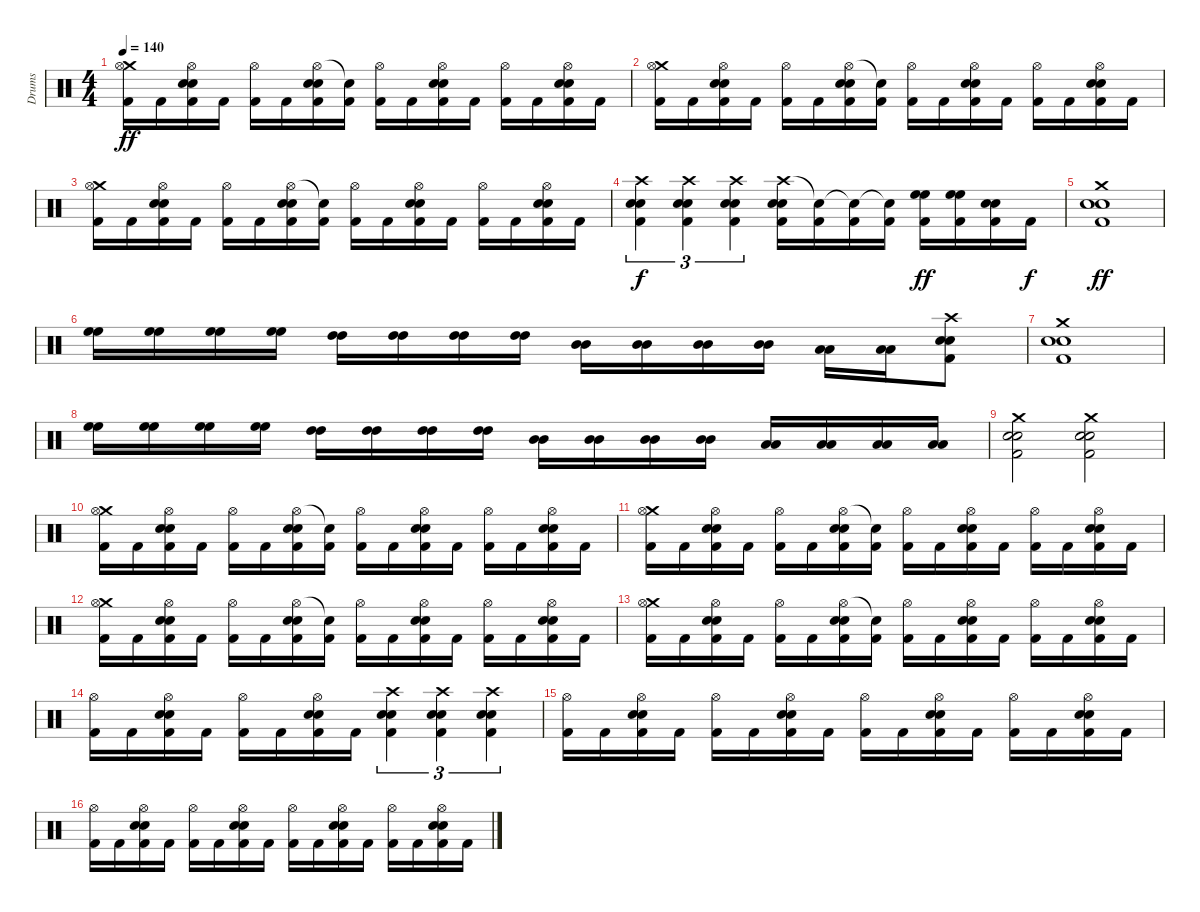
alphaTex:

\track ("Drums" "Drums") {instrument percussion}
\staff {score}
\articulation defaults
\ts (4 4)
\tempo 140
\clef neutral
\ks c
("Crash medium (hit)" "Hi-Hat (open)" "Kick (hit) 2").16{dy ff} "Kick (hit) 2".16 ("Hi-Hat (open)" "Electric Snare (hit)" "Electric Snare (hit)" "Kick (hit) 2").16 "Kick (hit) 2".16 ("Hi-Hat (open)" "Kick (hit) 2").16 "Kick (hit) 2".16 ("Hi-Hat (open)" "Electric Snare (hit)" "Electric Snare (hit)" "Kick (hit) 2").16 ("Snare (hit)"{t} "Kick (hit) 2").16 ("Hi-Hat (open)" "Kick (hit) 2").16 "Kick (hit) 2".16 ("Hi-Hat (open)" "Electric Snare (hit)" "Electric Snare (hit)" "Kick (hit) 2").16 "Kick (hit) 2".16 ("Hi-Hat (open)" "Kick (hit) 2").16 "Kick (hit) 2".16 ("Hi-Hat (open)" "Electric Snare (hit)" "Electric Snare (hit)" "Kick (hit) 2").16 "Kick (hit) 2".16 |
("Crash medium (hit)" "Hi-Hat (open)" "Kick (hit) 2").16 "Kick (hit) 2".16 ("Hi-Hat (open)" "Electric Snare (hit)" "Electric Snare (hit)" "Kick (hit) 2").16 "Kick (hit) 2".16 ("Hi-Hat (open)" "Kick (hit) 2").16 "Kick (hit) 2".16 ("Hi-Hat (open)" "Electric Snare (hit)" "Electric Snare (hit)" "Kick (hit) 2").16 ("Snare (hit)"{t} "Kick (hit) 2").16 ("Hi-Hat (open)" "Kick (hit) 2").16 "Kick (hit) 2".16 ("Hi-Hat (open)" "Electric Snare (hit)" "Electric Snare (hit)" "Kick (hit) 2").16 "Kick (hit) 2".16 ("Hi-Hat (open)" "Kick (hit) 2").16 "Kick (hit) 2".16 ("Hi-Hat (open)" "Electric Snare (hit)" "Electric Snare (hit)" "Kick (hit) 2").16 "Kick (hit) 2".16 |
("Crash medium (hit)" "Hi-Hat (open)" "Kick (hit) 2").16 "Kick (hit) 2".16 ("Hi-Hat (open)" "Electric Snare (hit)" "Electric Snare (hit)" "Kick (hit) 2").16 "Kick (hit) 2".16 ("Hi-Hat (open)" "Kick (hit) 2").16 "Kick (hit) 2".16 ("Hi-Hat (open)" "Electric Snare (hit)" "Electric Snare (hit)" "Kick (hit) 2").16 ("Snare (hit)"{t} "Kick (hit) 2").16 ("Hi-Hat (open)" "Kick (hit) 2").16 "Kick (hit) 2".16 ("Hi-Hat (open)" "Electric Snare (hit)" "Electric Snare (hit)" "Kick (hit) 2").16 "Kick (hit) 2".16 ("Hi-Hat (open)" "Kick (hit) 2").16 "Kick (hit) 2".16 ("Hi-Hat (open)" "Electric Snare (hit)" "Electric Snare (hit)" "Kick (hit) 2").16 "Kick (hit) 2".16 |
("Crash high (hit)" "Electric Snare (hit)" "Electric Snare (hit)" "Kick (hit) 2").4{tu (3 2) dy f} ("Crash high (hit)" "Electric Snare (hit)" "Electric Snare (hit)" "Kick (hit) 2").4{tu (3 2)} ("Crash high (hit)" "Electric Snare (hit)" "Electric Snare (hit)" "Kick (hit) 2").4{tu (3 2)} ("Crash high (hit)" "Electric Snare (hit)" "Electric Snare (hit)" "Kick (hit) 2").16 ("Snare (hit)"{t} "Kick (hit) 2").16 ("Snare (hit)"{t} "Kick (hit) 2").16 ("Snare (hit)"{t} "Kick (hit) 2").16 ("High Floor Tom (hit)" "High Floor Tom (hit)" "Kick (hit) 2").16{dy ff} ("High Floor Tom (hit)" "High Floor Tom (hit)" "Kick (hit) 2").16 ("Electric Snare (hit)" "Electric Snare (hit)" "Kick (hit) 2").16 "Kick (hit) 2".16{dy f} |
("Crash medium (hit)" "Electric Snare (hit)" "Electric Snare (hit)" "Kick (hit) 2").1{dy ff} |
("High Floor Tom (hit)" "High Floor Tom (hit)").16 ("High Floor Tom (hit)" "High Floor Tom (hit)").16 ("High Floor Tom (hit)" "High Floor Tom (hit)").16 ("High Floor Tom (hit)" "High Floor Tom (hit)").16 ("High Tom (hit)" "High Tom (hit)").16 ("High Tom (hit)" "High Tom (hit)").16 ("High Tom (hit)" "High Tom (hit)").16 ("High Tom (hit)" "High Tom (hit)").16 ("Mid Tom (hit)" "Mid Tom (hit)").16 ("Mid Tom (hit)" "Mid Tom (hit)").16 ("Mid Tom (hit)" "Mid Tom (hit)").16 ("Mid Tom (hit)" "Mid Tom (hit)").16 ("Low Tom (hit)" "Low Tom (hit)").16 ("Low Tom (hit)" "Low Tom (hit)").16 ("Crash high (hit)" "Electric Snare (hit)" "Electric Snare (hit)" "Kick (hit) 2").8 |
("Crash medium (hit)" "Electric Snare (hit)" "Electric Snare (hit)" "Kick (hit) 2").1 |
("High Floor Tom (hit)" "High Floor Tom (hit)").16 ("High Floor Tom (hit)" "High Floor Tom (hit)").16 ("High Floor Tom (hit)" "High Floor Tom (hit)").16 ("High Floor Tom (hit)" "High Floor Tom (hit)").16 ("High Tom (hit)" "High Tom (hit)").16 ("High Tom (hit)" "High Tom (hit)").16 ("High Tom (hit)" "High Tom (hit)").16 ("High Tom (hit)" "High Tom (hit)").16 ("Mid Tom (hit)" "Mid Tom (hit)").16 ("Mid Tom (hit)" "Mid Tom (hit)").16 ("Mid Tom (hit)" "Mid Tom (hit)").16 ("Mid Tom (hit)" "Mid Tom (hit)").16 ("Low Tom (hit)" "Low Tom (hit)").16 ("Low Tom (hit)" "Low Tom (hit)").16 ("Low Tom (hit)" "Low Tom (hit)").16 ("Low Tom (hit)" "Low Tom (hit)").16 |
("Crash medium (hit)" "Electric Snare (hit)" "Electric Snare (hit)" "Kick (hit) 2").2 ("Crash medium (hit)" "Electric Snare (hit)" "Electric Snare (hit)" "Kick (hit) 2").2 |
("Crash medium (hit)" "Hi-Hat (open)" "Kick (hit) 2").16 "Kick (hit) 2".16 ("Hi-Hat (open)" "Electric Snare (hit)" "Electric Snare (hit)" "Kick (hit) 2").16 "Kick (hit) 2".16 ("Hi-Hat (open)" "Kick (hit) 2").16 "Kick (hit) 2".16 ("Hi-Hat (open)" "Electric Snare (hit)" "Electric Snare (hit)" "Kick (hit) 2").16 ("Snare (hit)"{t} "Kick (hit) 2").16 ("Hi-Hat (open)" "Kick (hit) 2").16 "Kick (hit) 2".16 ("Hi-Hat (open)" "Electric Snare (hit)" "Electric Snare (hit)" "Kick (hit) 2").16 "Kick (hit) 2".16 ("Hi-Hat (open)" "Kick (hit) 2").16 "Kick (hit) 2".16 ("Hi-Hat (open)" "Electric Snare (hit)" "Electric Snare (hit)" "Kick (hit) 2").16 "Kick (hit) 2".16 |
("Crash medium (hit)" "Hi-Hat (open)" "Kick (hit) 2").16 "Kick (hit) 2".16 ("Hi-Hat (open)" "Electric Snare (hit)" "Electric Snare (hit)" "Kick (hit) 2").16 "Kick (hit) 2".16 ("Hi-Hat (open)" "Kick (hit) 2").16 "Kick (hit) 2".16 ("Hi-Hat (open)" "Electric Snare (hit)" "Electric Snare (hit)" "Kick (hit) 2").16 ("Snare (hit)"{t} "Kick (hit) 2").16 ("Hi-Hat (open)" "Kick (hit) 2").16 "Kick (hit) 2".16 ("Hi-Hat (open)" "Electric Snare (hit)" "Electric Snare (hit)" "Kick (hit) 2").16 "Kick (hit) 2".16 ("Hi-Hat (open)" "Kick (hit) 2").16 "Kick (hit) 2".16 ("Hi-Hat (open)" "Electric Snare (hit)" "Electric Snare (hit)" "Kick (hit) 2").16 "Kick (hit) 2".16 |
("Crash medium (hit)" "Hi-Hat (open)" "Kick (hit) 2").16 "Kick (hit) 2".16 ("Hi-Hat (open)" "Electric Snare (hit)" "Electric Snare (hit)" "Kick (hit) 2").16 "Kick (hit) 2".16 ("Hi-Hat (open)" "Kick (hit) 2").16 "Kick (hit) 2".16 ("Hi-Hat (open)" "Electric Snare (hit)" "Electric Snare (hit)" "Kick (hit) 2").16 ("Snare (hit)"{t} "Kick (hit) 2").16 ("Hi-Hat (open)" "Kick (hit) 2").16 "Kick (hit) 2".16 ("Hi-Hat (open)" "Electric Snare (hit)" "Electric Snare (hit)" "Kick (hit) 2").16 "Kick (hit) 2".16 ("Hi-Hat (open)" "Kick (hit) 2").16 "Kick (hit) 2".16 ("Hi-Hat (open)" "Electric Snare (hit)" "Electric Snare (hit)" "Kick (hit) 2").16 "Kick (hit) 2".16 |
("Crash medium (hit)" "Hi-Hat (open)" "Kick (hit) 2").16 "Kick (hit) 2".16 ("Hi-Hat (open)" "Electric Snare (hit)" "Electric Snare (hit)" "Kick (hit) 2").16 "Kick (hit) 2".16 ("Hi-Hat (open)" "Kick (hit) 2").16 "Kick (hit) 2".16 ("Hi-Hat (open)" "Electric Snare (hit)" "Electric Snare (hit)" "Kick (hit) 2").16 ("Snare (hit)"{t} "Kick (hit) 2").16 ("Hi-Hat (open)" "Kick (hit) 2").16 "Kick (hit) 2".16 ("Hi-Hat (open)" "Electric Snare (hit)" "Electric Snare (hit)" "Kick (hit) 2").16 "Kick (hit) 2".16 ("Hi-Hat (open)" "Kick (hit) 2").16 "Kick (hit) 2".16 ("Hi-Hat (open)" "Electric Snare (hit)" "Electric Snare (hit)" "Kick (hit) 2").16 "Kick (hit) 2".16 |
("Hi-Hat (open)" "Kick (hit) 2").16 "Kick (hit) 2".16 ("Hi-Hat (open)" "Electric Snare (hit)" "Electric Snare (hit)" "Kick (hit) 2").16 "Kick (hit) 2".16 ("Hi-Hat (open)" "Kick (hit) 2").16 "Kick (hit) 2".16 ("Hi-Hat (open)" "Electric Snare (hit)" "Electric Snare (hit)" "Kick (hit) 2").16 "Kick (hit) 2".16 ("Crash high (hit)" "Electric Snare (hit)" "Electric Snare (hit)" "Kick (hit) 2").4{tu (3 2)} ("Crash high (hit)" "Electric Snare (hit)" "Electric Snare (hit)" "Kick (hit) 2").4{tu (3 2)} ("Crash high (hit)" "Electric Snare (hit)" "Electric Snare (hit)" "Kick (hit) 2").4{tu (3 2)} |
("Hi-Hat (open)" "Kick (hit) 2").16 "Kick (hit) 2".16 ("Hi-Hat (open)" "Electric Snare (hit)" "Electric Snare (hit)" "Kick (hit) 2").16 "Kick (hit) 2".16 ("Hi-Hat (open)" "Kick (hit) 2").16 "Kick (hit) 2".16 ("Hi-Hat (open)" "Electric Snare (hit)" "Electric Snare (hit)" "Kick (hit) 2").16 "Kick (hit) 2".16 ("Hi-Hat (open)" "Kick (hit) 2").16 "Kick (hit) 2".16 ("Hi-Hat (open)" "Electric Snare (hit)" "Electric Snare (hit)" "Kick (hit) 2").16 "Kick (hit) 2".16 ("Hi-Hat (open)" "Kick (hit) 2").16 "Kick (hit) 2".16 ("Hi-Hat (open)" "Electric Snare (hit)" "Electric Snare (hit)" "Kick (hit) 2").16 "Kick (hit) 2".16 |
("Hi-Hat (open)" "Kick (hit) 2").16 "Kick (hit) 2".16 ("Hi-Hat (open)" "Electric Snare (hit)" "Electric Snare (hit)" "Kick (hit) 2").16 "Kick (hit) 2".16 ("Hi-Hat (open)" "Kick (hit) 2").16 "Kick (hit) 2".16 ("Hi-Hat (open)" "Electric Snare (hit)" "Electric Snare (hit)" "Kick (hit) 2").16 "Kick (hit) 2".16 ("Hi-Hat (open)" "Kick (hit) 2").16 "Kick (hit) 2".16 ("Hi-Hat (open)" "Electric Snare (hit)" "Electric Snare (hit)" "Kick (hit) 2").16 "Kick (hit) 2".16 ("Hi-Hat (open)" "Kick (hit) 2").16 "Kick (hit) 2".16 ("Hi-Hat (open)" "Electric Snare (hit)" "Electric Snare (hit)" "Kick (hit) 2").16 "Kick (hit) 2".16
